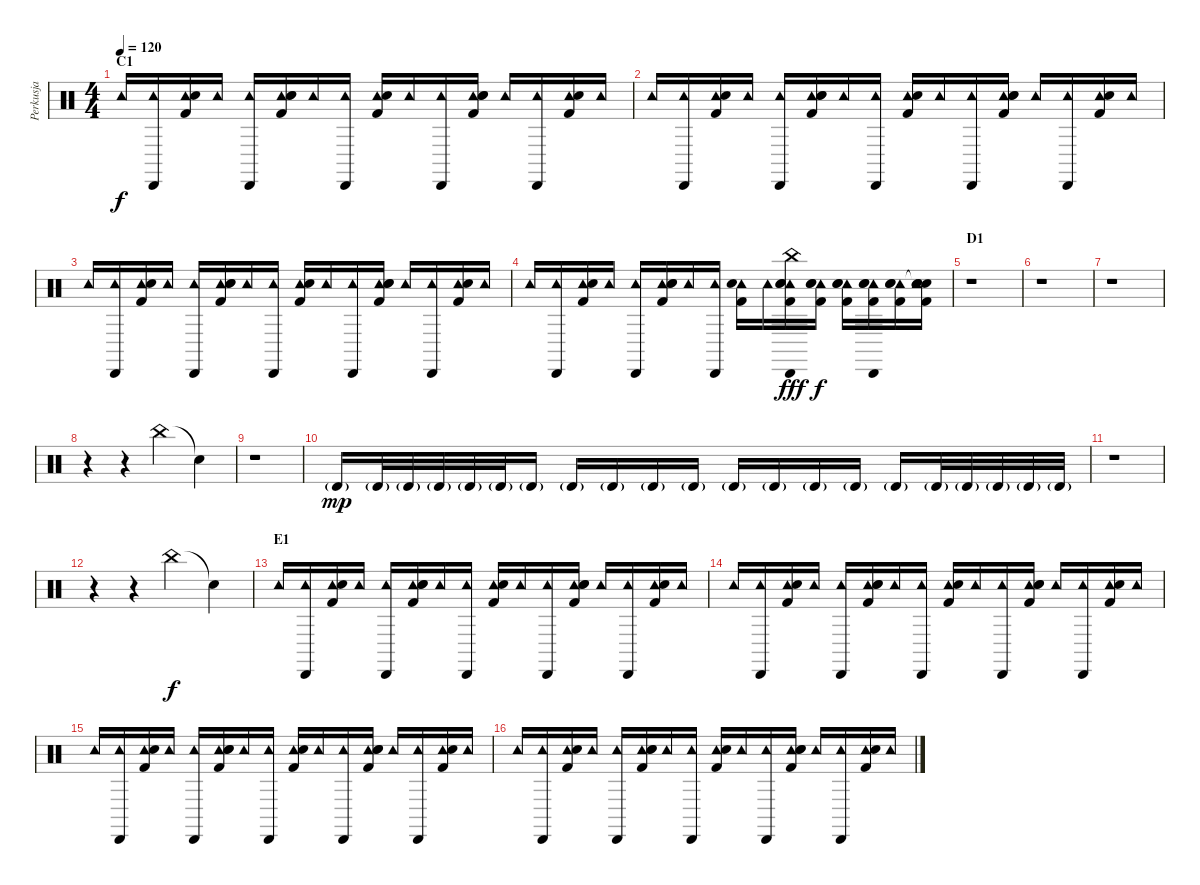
\track ("Perkusja" "Perkusja") {instrument percussion}
\staff {score}
\articulation defaults
\ts (4 4)
\section ("" "C1")
\tempo 120
\clef neutral
\ks c "Tambourine (hit)".16{dy f}
("Tambourine (hit)" "Cabasa (hit)").16 ("Tambourine (hit)" "Kick (hit) 2" "Snare (hit) 2").16 "Tambourine (hit)".16 ("Tambourine (hit)" "Cabasa (hit)").16 ("Tambourine (hit)" "Kick (hit) 2" "Electric Snare (hit)" "Snare (hit) 2").16 "Tambourine (hit)".16 ("Tambourine (hit)" "Cabasa (hit)").16 ("Tambourine (hit)" "Kick (hit) 2" "Snare (hit) 2").16 "Tambourine (hit)".16 ("Tambourine (hit)" "Cabasa (hit)").16 ("Tambourine (hit)" "Kick (hit) 2" "Electric Snare (hit)" "Snare (hit) 2").16 "Tambourine (hit)".16 ("Tambourine (hit)" "Cabasa (hit)").16 ("Tambourine (hit)" "Kick (hit) 2" "Snare (hit) 2").16 "Tambourine (hit)".16 |
"Tambourine (hit)".16 ("Tambourine (hit)" "Cabasa (hit)").16 ("Tambourine (hit)" "Kick (hit) 2" "Snare (hit) 2").16 "Tambourine (hit)".16 ("Tambourine (hit)" "Cabasa (hit)").16 ("Tambourine (hit)" "Kick (hit) 2" "Electric Snare (hit)" "Snare (hit) 2").16 "Tambourine (hit)".16 ("Tambourine (hit)" "Cabasa (hit)").16 ("Tambourine (hit)" "Kick (hit) 2" "Snare (hit) 2").16 "Tambourine (hit)".16 ("Tambourine (hit)" "Cabasa (hit)").16 ("Tambourine (hit)" "Kick (hit) 2" "Electric Snare (hit)" "Snare (hit) 2").16 "Tambourine (hit)".16 ("Tambourine (hit)" "Cabasa (hit)").16 ("Tambourine (hit)" "Kick (hit) 2" "Snare (hit) 2").16 "Tambourine (hit)".16 |
"Tambourine (hit)".16 ("Tambourine (hit)" "Cabasa (hit)").16 ("Tambourine (hit)" "Kick (hit) 2" "Snare (hit) 2").16 "Tambourine (hit)".16 ("Tambourine (hit)" "Cabasa (hit)").16 ("Tambourine (hit)" "Kick (hit) 2" "Electric Snare (hit)" "Snare (hit) 2").16 "Tambourine (hit)".16 ("Tambourine (hit)" "Cabasa (hit)").16 ("Tambourine (hit)" "Kick (hit) 2" "Snare (hit) 2").16 "Tambourine (hit)".16 ("Tambourine (hit)" "Cabasa (hit)").16 ("Tambourine (hit)" "Kick (hit) 2" "Electric Snare (hit)" "Snare (hit) 2").16 "Tambourine (hit)".16 ("Tambourine (hit)" "Cabasa (hit)").16 ("Tambourine (hit)" "Kick (hit) 2" "Snare (hit) 2").16 "Tambourine (hit)".16 |
"Tambourine (hit)".16 ("Tambourine (hit)" "Cabasa (hit)").16 ("Tambourine (hit)" "Kick (hit) 2" "Snare (hit) 2").16 "Tambourine (hit)".16 ("Tambourine (hit)" "Cabasa (hit)").16 ("Tambourine (hit)" "Kick (hit) 2" "Electric Snare (hit)" "Snare (hit) 2").16 "Tambourine (hit)".16 ("Tambourine (hit)" "Cabasa (hit)").16 ("Tambourine (hit)" "Kick (hit) 2" "Snare (hit) 2").16 "Tambourine (hit)".16 ("China (hit)" "Tambourine (hit)" "Kick (hit) 2" "Electric Snare (hit)" "Snare (hit) 2" "Cabasa (hit)").16{dy fff} ("Tambourine (hit)" "Kick (hit) 2" "Electric Snare (hit)" "Snare (hit) 2").16{dy f} ("Tambourine (hit)" "Kick (hit) 2" "Electric Snare (hit)" "Snare (hit) 2").16 ("Tambourine (hit)" "Kick (hit) 2" "Electric Snare (hit)" "Snare (hit) 2" "Cabasa (hit)").16 ("Tambourine (hit)" "Kick (hit) 2" "Electric Snare (hit)" "Snare (hit) 2").16 ("Snare (hit)"{t} "Tambourine (hit)" "Kick (hit) 2" "Electric Snare (hit)" "Snare (hit) 2").16 |
\section ("" "D1")
r.1 |
r.1 |
r.1 |
r.4 r.4 "China (hit)".4 "Snare (hit)"{t}.4 |
r.1 |
"Timbale high (hit)"{g}.16{dy mp} "Timbale high (hit)"{g}.32 "Timbale high (hit)"{g}.32 "Timbale high (hit)"{g}.32 "Timbale high (hit)"{g}.32 "Timbale high (hit)"{g}.32 "Timbale high (hit)"{g}.16 "Timbale high (hit)"{g}.16 "Timbale high (hit)"{g}.16 "Timbale high (hit)"{g}.16 "Timbale high (hit)"{g}.16 "Timbale high (hit)"{g}.16 "Timbale high (hit)"{g}.16 "Timbale high (hit)"{g}.16 "Timbale high (hit)"{g}.16 "Timbale high (hit)"{g}.16 "Timbale high (hit)"{g}.32 "Timbale high (hit)"{g}.32 "Timbale high (hit)"{g}.32 "Timbale high (hit)"{g}.32 "Timbale high (hit)"{g}.32 |
r.1 |
r.4 r.4 "China (hit)".4{dy f} "Snare (hit)"{t}.4 |
\section ("" "E1")
"Tambourine (hit)".16{volume 7} ("Tambourine (hit)" "Cabasa (hit)").16 ("Tambourine (hit)" "Kick (hit) 2" "Snare (hit) 2").16 "Tambourine (hit)".16 ("Tambourine (hit)" "Cabasa (hit)").16 ("Tambourine (hit)" "Kick (hit) 2" "Electric Snare (hit)" "Snare (hit) 2").16 "Tambourine (hit)".16 ("Tambourine (hit)" "Cabasa (hit)").16 ("Tambourine (hit)" "Kick (hit) 2" "Snare (hit) 2").16 "Tambourine (hit)".16 ("Tambourine (hit)" "Cabasa (hit)").16 ("Tambourine (hit)" "Kick (hit) 2" "Electric Snare (hit)" "Snare (hit) 2").16 "Tambourine (hit)".16 ("Tambourine (hit)" "Cabasa (hit)").16 ("Tambourine (hit)" "Kick (hit) 2" "Snare (hit) 2").16 "Tambourine (hit)".16 |
"Tambourine (hit)".16 ("Tambourine (hit)" "Cabasa (hit)").16 ("Tambourine (hit)" "Kick (hit) 2" "Snare (hit) 2").16 "Tambourine (hit)".16 ("Tambourine (hit)" "Cabasa (hit)").16 ("Tambourine (hit)" "Kick (hit) 2" "Electric Snare (hit)" "Snare (hit) 2").16 "Tambourine (hit)".16 ("Tambourine (hit)" "Cabasa (hit)").16 ("Tambourine (hit)" "Kick (hit) 2" "Snare (hit) 2").16 "Tambourine (hit)".16 ("Tambourine (hit)" "Cabasa (hit)").16 ("Tambourine (hit)" "Kick (hit) 2" "Electric Snare (hit)" "Snare (hit) 2").16 "Tambourine (hit)".16 ("Tambourine (hit)" "Cabasa (hit)").16 ("Tambourine (hit)" "Kick (hit) 2" "Snare (hit) 2").16 "Tambourine (hit)".16 |
"Tambourine (hit)".16 ("Tambourine (hit)" "Cabasa (hit)").16 ("Tambourine (hit)" "Kick (hit) 2" "Snare (hit) 2").16 "Tambourine (hit)".16 ("Tambourine (hit)" "Cabasa (hit)").16 ("Tambourine (hit)" "Kick (hit) 2" "Electric Snare (hit)" "Snare (hit) 2").16 "Tambourine (hit)".16 ("Tambourine (hit)" "Cabasa (hit)").16 ("Tambourine (hit)" "Kick (hit) 2" "Snare (hit) 2").16 "Tambourine (hit)".16 ("Tambourine (hit)" "Cabasa (hit)").16 ("Tambourine (hit)" "Kick (hit) 2" "Electric Snare (hit)" "Snare (hit) 2").16 "Tambourine (hit)".16 ("Tambourine (hit)" "Cabasa (hit)").16 ("Tambourine (hit)" "Kick (hit) 2" "Snare (hit) 2").16 "Tambourine (hit)".16 |
"Tambourine (hit)".16 ("Tambourine (hit)" "Cabasa (hit)").16 ("Tambourine (hit)" "Kick (hit) 2" "Snare (hit) 2").16 "Tambourine (hit)".16 ("Tambourine (hit)" "Cabasa (hit)").16 ("Tambourine (hit)" "Kick (hit) 2" "Electric Snare (hit)" "Snare (hit) 2").16 "Tambourine (hit)".16 ("Tambourine (hit)" "Cabasa (hit)").16 ("Tambourine (hit)" "Kick (hit) 2" "Snare (hit) 2").16 "Tambourine (hit)".16 ("Tambourine (hit)" "Cabasa (hit)").16 ("Tambourine (hit)" "Kick (hit) 2" "Electric Snare (hit)" "Snare (hit) 2").16 "Tambourine (hit)".16 ("Tambourine (hit)" "Cabasa (hit)").16 ("Tambourine (hit)" "Kick (hit) 2" "Snare (hit) 2").16 "Tambourine (hit)".16
